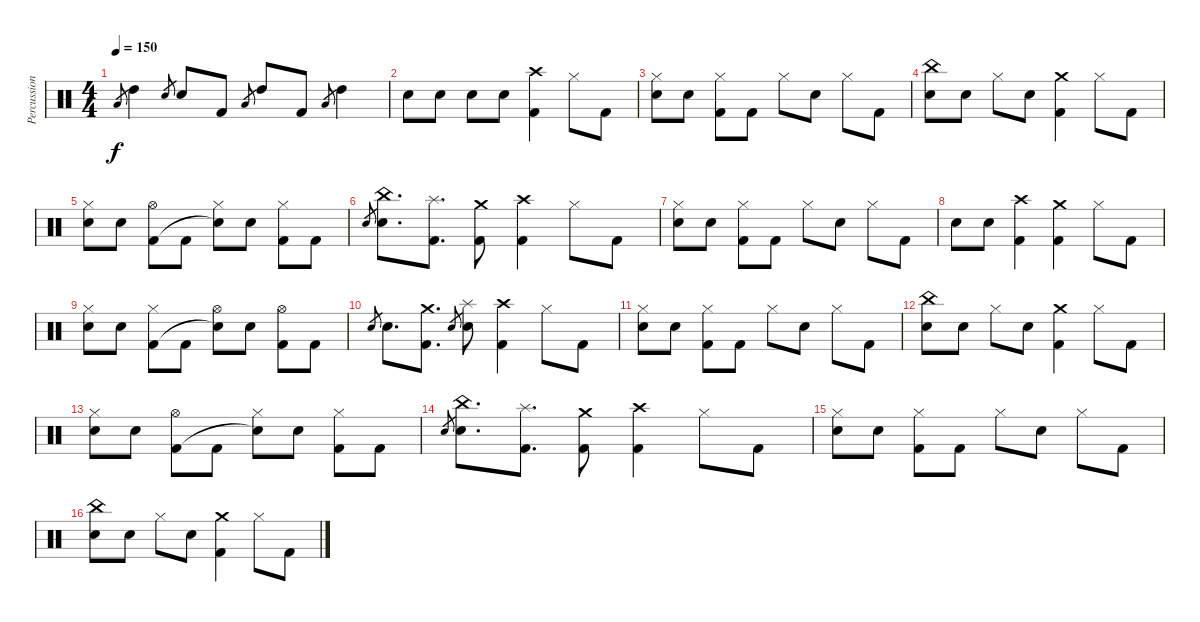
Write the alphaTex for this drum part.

\track ("Percussion" "Percussion") {instrument percussion}
\staff {score}
\articulation defaults
\ts (4 4)
\tempo 150
\clef neutral
\ks c "Low Tom (hit)".8{gr dy f} "High Tom (hit)".4 "Electric Snare (hit)".8{gr} "Electric Snare (hit)".8 "Kick (hit) 2".8 "Low Tom (hit)".8{gr} "High Tom (hit)".8 "Kick (hit) 2".8 "Low Tom (hit)".8{gr} "High Tom (hit)".4
|
"Electric Snare (hit)".8 "Electric Snare (hit)".8 "Electric Snare (hit)".8 "Electric Snare (hit)".8 ("Crash high (hit)" "Kick (hit) 2").4 "Hi-Hat (closed)".8 "Kick (hit) 2".8 |
("Hi-Hat (closed)" "Electric Snare (hit)").8 "Electric Snare (hit)".8 ("Hi-Hat (closed)" "Kick (hit) 2").8 "Kick (hit) 2".8 "Hi-Hat (closed)".8 "Electric Snare (hit)".8 "Hi-Hat (closed)".8 "Kick (hit) 2".8 |
("China (hit)" "Electric Snare (hit)").8 "Electric Snare (hit)".8 "Hi-Hat (closed)".8 "Electric Snare (hit)".8 ("Crash medium (hit)" "Kick (hit) 2").4 "Hi-Hat (closed)".8 "Kick (hit) 2".8 |
("Hi-Hat (closed)" "Electric Snare (hit)").8 "Electric Snare (hit)".8 ("Hi-Hat (open)" "Kick (hit) 2").8 "Kick (hit) 2".8 ("Hi-Hat (closed)" "Snare (hit)"{t}).8 "Electric Snare (hit)".8 ("Hi-Hat (closed)" "Kick (hit) 2").8 "Kick (hit) 2".8 |
"Electric Snare (hit)".8{gr} ("China (hit)" "Electric Snare (hit)").8{d} ("Splash (hit)" "Kick (hit) 2").8{d} ("Crash medium (hit)" "Kick (hit) 2").8 ("Crash high (hit)" "Kick (hit) 2").4 "Hi-Hat (closed)".8 "Kick (hit) 2".8 |
("Hi-Hat (closed)" "Electric Snare (hit)").8 "Electric Snare (hit)".8 ("Hi-Hat (closed)" "Kick (hit) 2").8 "Kick (hit) 2".8 "Hi-Hat (closed)".8 "Electric Snare (hit)".8 "Hi-Hat (closed)".8 "Kick (hit) 2".8 |
"Electric Snare (hit)".8 "Electric Snare (hit)".8 ("Crash high (hit)" "Kick (hit) 2").4 ("Crash medium (hit)" "Kick (hit) 2").4 "Hi-Hat (closed)".8 "Kick (hit) 2".8 |
("Hi-Hat (closed)" "Electric Snare (hit)").8 "Electric Snare (hit)".8 ("Hi-Hat (closed)" "Kick (hit) 2").8 "Kick (hit) 2".8 ("Hi-Hat (open)" "Snare (hit)"{t}).8 "Electric Snare (hit)".8 ("Hi-Hat (open)" "Kick (hit) 2").8 "Kick (hit) 2".8 |
"Electric Snare (hit)".8{gr} "Electric Snare (hit)".8{d} ("Crash medium (hit)" "Kick (hit) 2").8{d} "Electric Snare (hit)".8{gr} ("Splash (hit)" "Electric Snare (hit)").8 ("Crash high (hit)" "Kick (hit) 2").4 "Hi-Hat (closed)".8 "Kick (hit) 2".8 |
("Hi-Hat (closed)" "Electric Snare (hit)").8 "Electric Snare (hit)".8 ("Hi-Hat (closed)" "Kick (hit) 2").8 "Kick (hit) 2".8 "Hi-Hat (closed)".8 "Electric Snare (hit)".8 "Hi-Hat (closed)".8 "Kick (hit) 2".8 |
("China (hit)" "Electric Snare (hit)").8 "Electric Snare (hit)".8 "Hi-Hat (closed)".8 "Electric Snare (hit)".8 ("Crash medium (hit)" "Kick (hit) 2").4 "Hi-Hat (closed)".8 "Kick (hit) 2".8 |
("Hi-Hat (closed)" "Electric Snare (hit)").8 "Electric Snare (hit)".8 ("Hi-Hat (open)" "Kick (hit) 2").8 "Kick (hit) 2".8 ("Hi-Hat (closed)" "Snare (hit)"{t}).8 "Electric Snare (hit)".8 ("Hi-Hat (closed)" "Kick (hit) 2").8 "Kick (hit) 2".8 |
"Electric Snare (hit)".8{gr} ("China (hit)" "Electric Snare (hit)").8{d} ("Splash (hit)" "Kick (hit) 2").8{d} ("Crash medium (hit)" "Kick (hit) 2").8 ("Crash high (hit)" "Kick (hit) 2").4 "Hi-Hat (closed)".8 "Kick (hit) 2".8 |
("Hi-Hat (closed)" "Electric Snare (hit)").8 "Electric Snare (hit)".8 ("Hi-Hat (closed)" "Kick (hit) 2").8 "Kick (hit) 2".8 "Hi-Hat (closed)".8 "Electric Snare (hit)".8 "Hi-Hat (closed)".8 "Kick (hit) 2".8 |
("China (hit)" "Electric Snare (hit)").8 "Electric Snare (hit)".8 "Hi-Hat (closed)".8 "Electric Snare (hit)".8 ("Crash medium (hit)" "Kick (hit) 2").4 "Hi-Hat (closed)".8 "Kick (hit) 2".8
